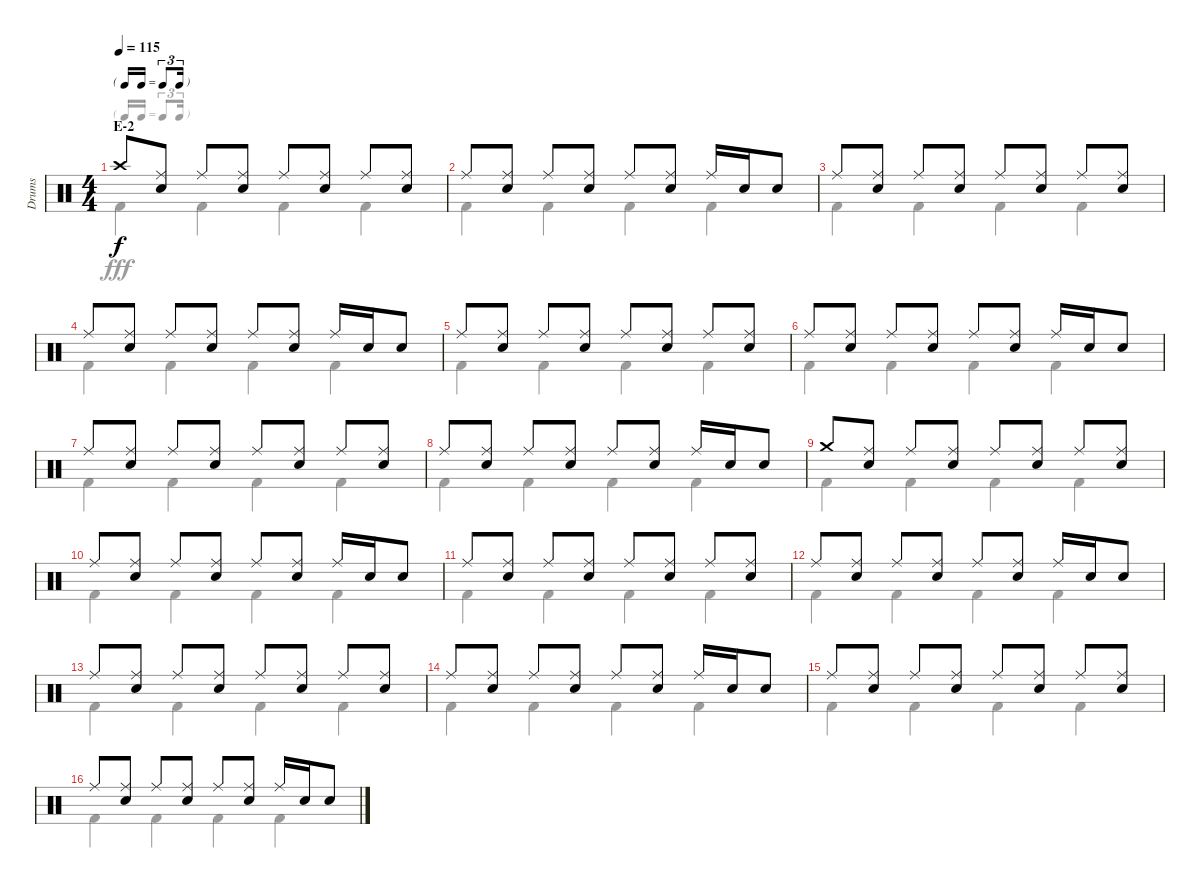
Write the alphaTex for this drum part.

\track ("Drums" "Drums") {instrument percussion}
\staff {score}
\articulation defaults
\voice
\ts (4 4)
\tf triplet16th
\section ("" "E-2")
\tempo 115
\clef neutral
\ks c "Crash high (hit)".8{dy f}
("Ride (middle)" "Snare (hit) 2").8 "Ride (middle)".8 ("Ride (middle)" "Snare (hit) 2").8 "Ride (middle)".8 ("Ride (middle)" "Snare (hit) 2").8 "Ride (middle)".8 ("Ride (middle)" "Snare (hit) 2").8 |
"Ride (middle)".8 ("Ride (middle)" "Snare (hit) 2").8 "Ride (middle)".8 ("Ride (middle)" "Snare (hit) 2").8 "Ride (middle)".8 ("Ride (middle)" "Snare (hit) 2").8 "Ride (middle)".16 "Snare (hit) 2".16 "Snare (hit) 2".8 |
"Ride (middle)".8 ("Ride (middle)" "Snare (hit) 2").8 "Ride (middle)".8 ("Ride (middle)" "Snare (hit) 2").8 "Ride (middle)".8 ("Ride (middle)" "Snare (hit) 2").8 "Ride (middle)".8 ("Ride (middle)" "Snare (hit) 2").8 |
"Ride (middle)".8 ("Ride (middle)" "Snare (hit) 2").8 "Ride (middle)".8 ("Ride (middle)" "Snare (hit) 2").8 "Ride (middle)".8 ("Ride (middle)" "Snare (hit) 2").8 "Ride (middle)".16 "Snare (hit) 2".16 "Snare (hit) 2".8 |
"Ride (middle)".8 ("Ride (middle)" "Snare (hit) 2").8 "Ride (middle)".8 ("Ride (middle)" "Snare (hit) 2").8 "Ride (middle)".8 ("Ride (middle)" "Snare (hit) 2").8 "Ride (middle)".8 ("Ride (middle)" "Snare (hit) 2").8 |
"Ride (middle)".8 ("Ride (middle)" "Snare (hit) 2").8 "Ride (middle)".8 ("Ride (middle)" "Snare (hit) 2").8 "Ride (middle)".8 ("Ride (middle)" "Snare (hit) 2").8 "Ride (middle)".16 "Snare (hit) 2".16 "Snare (hit) 2".8 |
"Ride (middle)".8 ("Ride (middle)" "Snare (hit) 2").8 "Ride (middle)".8 ("Ride (middle)" "Snare (hit) 2").8 "Ride (middle)".8 ("Ride (middle)" "Snare (hit) 2").8 "Ride (middle)".8 ("Ride (middle)" "Snare (hit) 2").8 |
"Ride (middle)".8 ("Ride (middle)" "Snare (hit) 2").8 "Ride (middle)".8 ("Ride (middle)" "Snare (hit) 2").8 "Ride (middle)".8 ("Ride (middle)" "Snare (hit) 2").8 "Ride (middle)".16 "Snare (hit) 2".16 "Snare (hit) 2".8 |
"Crash medium (hit)".8 ("Ride (middle)" "Snare (hit) 2").8 "Ride (middle)".8 ("Ride (middle)" "Snare (hit) 2").8 "Ride (middle)".8 ("Ride (middle)" "Snare (hit) 2").8 "Ride (middle)".8 ("Ride (middle)" "Snare (hit) 2").8 |
"Ride (middle)".8 ("Ride (middle)" "Snare (hit) 2").8 "Ride (middle)".8 ("Ride (middle)" "Snare (hit) 2").8 "Ride (middle)".8 ("Ride (middle)" "Snare (hit) 2").8 "Ride (middle)".16 "Snare (hit) 2".16 "Snare (hit) 2".8 |
"Ride (middle)".8 ("Ride (middle)" "Snare (hit) 2").8 "Ride (middle)".8 ("Ride (middle)" "Snare (hit) 2").8 "Ride (middle)".8 ("Ride (middle)" "Snare (hit) 2").8 "Ride (middle)".8 ("Ride (middle)" "Snare (hit) 2").8 |
"Ride (middle)".8 ("Ride (middle)" "Snare (hit) 2").8 "Ride (middle)".8 ("Ride (middle)" "Snare (hit) 2").8 "Ride (middle)".8 ("Ride (middle)" "Snare (hit) 2").8 "Ride (middle)".16 "Snare (hit) 2".16 "Snare (hit) 2".8 |
"Ride (middle)".8 ("Ride (middle)" "Snare (hit) 2").8 "Ride (middle)".8 ("Ride (middle)" "Snare (hit) 2").8 "Ride (middle)".8 ("Ride (middle)" "Snare (hit) 2").8 "Ride (middle)".8 ("Ride (middle)" "Snare (hit) 2").8 |
"Ride (middle)".8 ("Ride (middle)" "Snare (hit) 2").8 "Ride (middle)".8 ("Ride (middle)" "Snare (hit) 2").8 "Ride (middle)".8 ("Ride (middle)" "Snare (hit) 2").8 "Ride (middle)".16 "Snare (hit) 2".16 "Snare (hit) 2".8 |
"Ride (middle)".8 ("Ride (middle)" "Snare (hit) 2").8 "Ride (middle)".8 ("Ride (middle)" "Snare (hit) 2").8 "Ride (middle)".8 ("Ride (middle)" "Snare (hit) 2").8 "Ride (middle)".8 ("Ride (middle)" "Snare (hit) 2").8 |
"Ride (middle)".8 ("Ride (middle)" "Snare (hit) 2").8 "Ride (middle)".8 ("Ride (middle)" "Snare (hit) 2").8 "Ride (middle)".8 ("Ride (middle)" "Snare (hit) 2").8 "Ride (middle)".16 "Snare (hit) 2".16 "Snare (hit) 2".8
\voice
\clef neutral
\ottava regular
\simile none
\ks c "Kick (hit) 2".4{dy fff} "Kick (hit) 2".4 "Kick (hit) 2".4 "Kick (hit) 2".4
|
"Kick (hit) 2".4 "Kick (hit) 2".4 "Kick (hit) 2".4 "Kick (hit) 2".4 |
"Kick (hit) 2".4 "Kick (hit) 2".4 "Kick (hit) 2".4 "Kick (hit) 2".4 |
"Kick (hit) 2".4 "Kick (hit) 2".4 "Kick (hit) 2".4 "Kick (hit) 2".4 |
"Kick (hit) 2".4 "Kick (hit) 2".4 "Kick (hit) 2".4 "Kick (hit) 2".4 |
"Kick (hit) 2".4 "Kick (hit) 2".4 "Kick (hit) 2".4 "Kick (hit) 2".4 |
"Kick (hit) 2".4 "Kick (hit) 2".4 "Kick (hit) 2".4 "Kick (hit) 2".4 |
"Kick (hit) 2".4 "Kick (hit) 2".4 "Kick (hit) 2".4 "Kick (hit) 2".4 |
"Kick (hit) 2".4 "Kick (hit) 2".4 "Kick (hit) 2".4 "Kick (hit) 2".4 |
"Kick (hit) 2".4 "Kick (hit) 2".4 "Kick (hit) 2".4 "Kick (hit) 2".4 |
"Kick (hit) 2".4 "Kick (hit) 2".4 "Kick (hit) 2".4 "Kick (hit) 2".4 |
"Kick (hit) 2".4 "Kick (hit) 2".4 "Kick (hit) 2".4 "Kick (hit) 2".4 |
"Kick (hit) 2".4 "Kick (hit) 2".4 "Kick (hit) 2".4 "Kick (hit) 2".4 |
"Kick (hit) 2".4 "Kick (hit) 2".4 "Kick (hit) 2".4 "Kick (hit) 2".4 |
"Kick (hit) 2".4 "Kick (hit) 2".4 "Kick (hit) 2".4 "Kick (hit) 2".4 |
"Kick (hit) 2".4 "Kick (hit) 2".4 "Kick (hit) 2".4 "Kick (hit) 2".4
